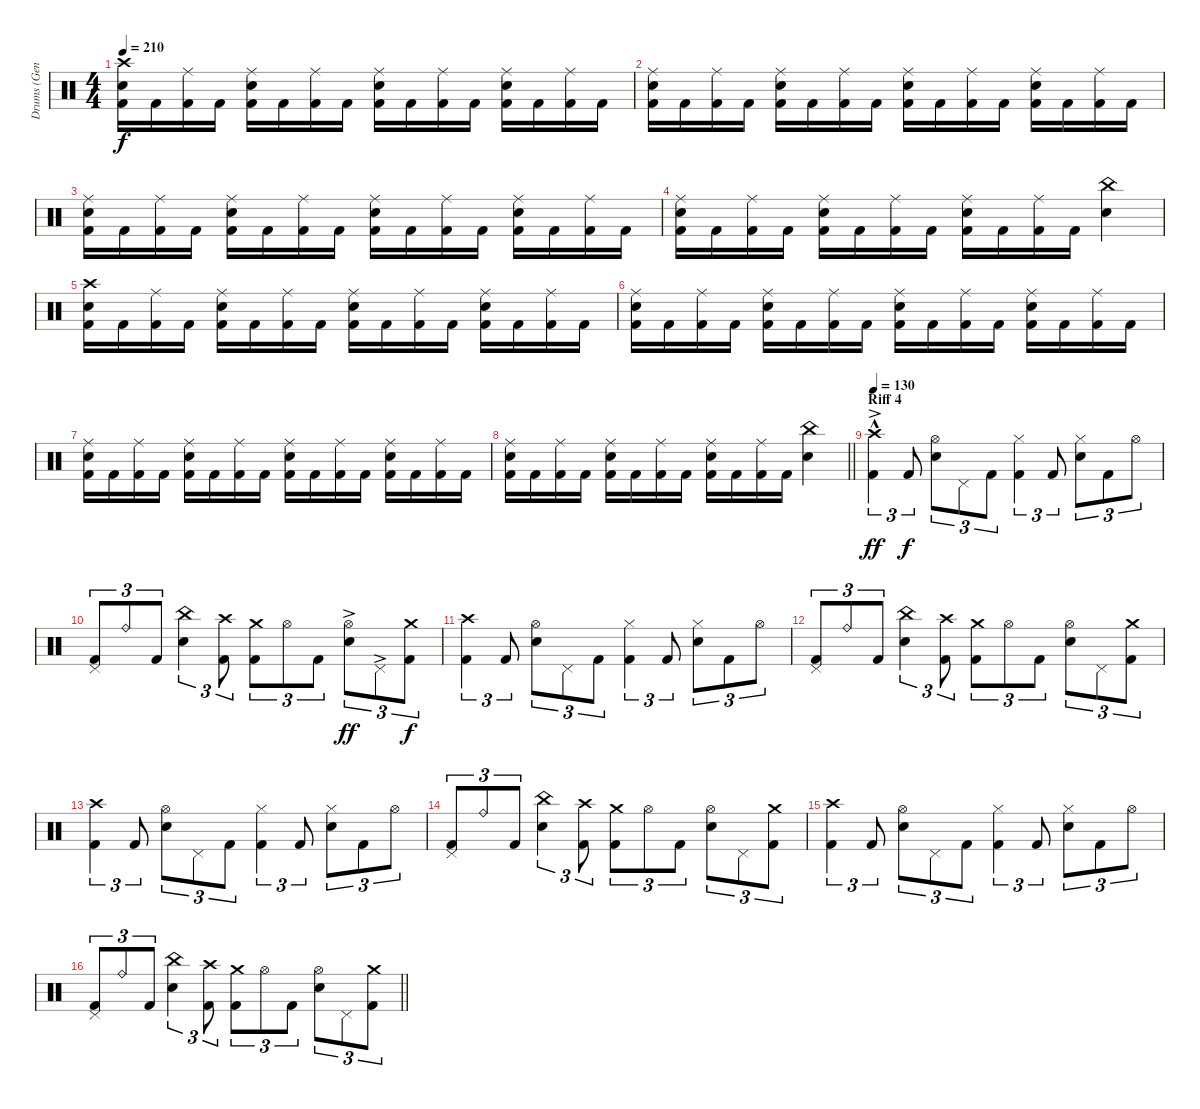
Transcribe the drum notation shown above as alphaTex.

\track ("Drums (Gene Hoglan)" "Drums (Gen") {instrument percussion}
\staff {score}
\articulation defaults
\ts (4 4)
\tempo 210
\clef neutral
\ks c
("Crash high (hit)" "Snare (hit) 2" "Kick (hit) 2").16{dy f} "Kick (hit) 2".16 ("Ride (middle)" "Kick (hit) 2").16 "Kick (hit) 2".16 ("Ride (middle)" "Snare (hit) 2" "Kick (hit) 2").16 "Kick (hit) 2".16 ("Ride (middle)" "Kick (hit) 2").16 "Kick (hit) 2".16 ("Ride (middle)" "Snare (hit) 2" "Kick (hit) 2").16 "Kick (hit) 2".16 ("Ride (middle)" "Kick (hit) 2").16 "Kick (hit) 2".16 ("Ride (middle)" "Snare (hit) 2" "Kick (hit) 2").16 "Kick (hit) 2".16 ("Ride (middle)" "Kick (hit) 2").16 "Kick (hit) 2".16 |
("Ride (middle)" "Snare (hit) 2" "Kick (hit) 2").16 "Kick (hit) 2".16 ("Ride (middle)" "Kick (hit) 2").16 "Kick (hit) 2".16 ("Ride (middle)" "Snare (hit) 2" "Kick (hit) 2").16 "Kick (hit) 2".16 ("Ride (middle)" "Kick (hit) 2").16 "Kick (hit) 2".16 ("Ride (middle)" "Snare (hit) 2" "Kick (hit) 2").16 "Kick (hit) 2".16 ("Ride (middle)" "Kick (hit) 2").16 "Kick (hit) 2".16 ("Ride (middle)" "Snare (hit) 2" "Kick (hit) 2").16 "Kick (hit) 2".16 ("Ride (middle)" "Kick (hit) 2").16 "Kick (hit) 2".16 |
("Ride (middle)" "Snare (hit) 2" "Kick (hit) 2").16 "Kick (hit) 2".16 ("Ride (middle)" "Kick (hit) 2").16 "Kick (hit) 2".16 ("Ride (middle)" "Snare (hit) 2" "Kick (hit) 2").16 "Kick (hit) 2".16 ("Ride (middle)" "Kick (hit) 2").16 "Kick (hit) 2".16 ("Ride (middle)" "Snare (hit) 2" "Kick (hit) 2").16 "Kick (hit) 2".16 ("Ride (middle)" "Kick (hit) 2").16 "Kick (hit) 2".16 ("Ride (middle)" "Snare (hit) 2" "Kick (hit) 2").16 "Kick (hit) 2".16 ("Ride (middle)" "Kick (hit) 2").16 "Kick (hit) 2".16 |
("Ride (middle)" "Snare (hit) 2" "Kick (hit) 2").16 "Kick (hit) 2".16 ("Ride (middle)" "Kick (hit) 2").16 "Kick (hit) 2".16 ("Ride (middle)" "Snare (hit) 2" "Kick (hit) 2").16 "Kick (hit) 2".16 ("Ride (middle)" "Kick (hit) 2").16 "Kick (hit) 2".16 ("Ride (middle)" "Snare (hit) 2" "Kick (hit) 2").16 "Kick (hit) 2".16 ("Ride (middle)" "Kick (hit) 2").16 "Kick (hit) 2".16 ("China (hit)" "Snare (hit) 2").4 |
("Crash high (hit)" "Snare (hit) 2" "Kick (hit) 2").16 "Kick (hit) 2".16 ("Ride (middle)" "Kick (hit) 2").16 "Kick (hit) 2".16 ("Ride (middle)" "Snare (hit) 2" "Kick (hit) 2").16 "Kick (hit) 2".16 ("Ride (middle)" "Kick (hit) 2").16 "Kick (hit) 2".16 ("Ride (middle)" "Snare (hit) 2" "Kick (hit) 2").16 "Kick (hit) 2".16 ("Ride (middle)" "Kick (hit) 2").16 "Kick (hit) 2".16 ("Ride (middle)" "Snare (hit) 2" "Kick (hit) 2").16 "Kick (hit) 2".16 ("Ride (middle)" "Kick (hit) 2").16 "Kick (hit) 2".16 |
("Ride (middle)" "Snare (hit) 2" "Kick (hit) 2").16 "Kick (hit) 2".16 ("Ride (middle)" "Kick (hit) 2").16 "Kick (hit) 2".16 ("Ride (middle)" "Snare (hit) 2" "Kick (hit) 2").16 "Kick (hit) 2".16 ("Ride (middle)" "Kick (hit) 2").16 "Kick (hit) 2".16 ("Ride (middle)" "Snare (hit) 2" "Kick (hit) 2").16 "Kick (hit) 2".16 ("Ride (middle)" "Kick (hit) 2").16 "Kick (hit) 2".16 ("Ride (middle)" "Snare (hit) 2" "Kick (hit) 2").16 "Kick (hit) 2".16 ("Ride (middle)" "Kick (hit) 2").16 "Kick (hit) 2".16 |
("Ride (middle)" "Snare (hit) 2" "Kick (hit) 2").16 "Kick (hit) 2".16 ("Ride (middle)" "Kick (hit) 2").16 "Kick (hit) 2".16 ("Ride (middle)" "Snare (hit) 2" "Kick (hit) 2").16 "Kick (hit) 2".16 ("Ride (middle)" "Kick (hit) 2").16 "Kick (hit) 2".16 ("Ride (middle)" "Snare (hit) 2" "Kick (hit) 2").16 "Kick (hit) 2".16 ("Ride (middle)" "Kick (hit) 2").16 "Kick (hit) 2".16 ("Ride (middle)" "Snare (hit) 2" "Kick (hit) 2").16 "Kick (hit) 2".16 ("Ride (middle)" "Kick (hit) 2").16 "Kick (hit) 2".16 |
\barLineRight lightlight
("Ride (middle)" "Snare (hit) 2" "Kick (hit) 2").16 "Kick (hit) 2".16 ("Ride (middle)" "Kick (hit) 2").16 "Kick (hit) 2".16 ("Ride (middle)" "Snare (hit) 2" "Kick (hit) 2").16 "Kick (hit) 2".16 ("Ride (middle)" "Kick (hit) 2").16 "Kick (hit) 2".16 ("Ride (middle)" "Snare (hit) 2" "Kick (hit) 2").16 "Kick (hit) 2".16 ("Ride (middle)" "Kick (hit) 2").16 "Kick (hit) 2".16 ("China (hit)" "Snare (hit) 2").4 |
\section ("" "Riff 4")
\tempo 130
("Crash high (hit)"{hac} "Kick (hit) 2"{ac}).4{tu (3 2) dy ff} "Kick (hit) 2".8{tu (3 2) dy f} ("Hi-Hat (open)" "Snare (hit) 2").8{tu (3 2)} "Pedal Hi-Hat (hit)".8{tu (3 2)} "Kick (hit) 2".8{tu (3 2)} ("Hi-Hat (closed)" "Kick (hit) 2").4{tu (3 2)} "Kick (hit) 2".8{tu (3 2)} ("Hi-Hat (closed)" "Snare (hit) 2").8{tu (3 2)} "Kick (hit) 2".8{tu (3 2)} "Hi-Hat (open)".8{tu (3 2)} |
("Pedal Hi-Hat (hit)" "Kick (hit) 2").8{tu (3 2)} "Ride (bell)".8{tu (3 2)} "Kick (hit) 2".8{tu (3 2)} ("China (hit)" "Snare (hit) 2").4{tu (3 2)} ("Crash high (hit)" "Kick (hit) 2").8{tu (3 2)} ("Crash medium (hit)" "Kick (hit) 2").8{tu (3 2)} "Hi-Hat (open)".8{tu (3 2)} "Kick (hit) 2".8{tu (3 2)} ("Hi-Hat (open)"{ac} "Snare (hit) 2").8{tu (3 2) dy ff} "Pedal Hi-Hat (hit)"{ac}.8{tu (3 2)} ("Crash medium (hit)" "Kick (hit) 2").8{tu (3 2) dy f} |
("Crash high (hit)" "Kick (hit) 2").4{tu (3 2)} "Kick (hit) 2".8{tu (3 2)} ("Hi-Hat (open)" "Snare (hit) 2").8{tu (3 2)} "Pedal Hi-Hat (hit)".8{tu (3 2)} "Kick (hit) 2".8{tu (3 2)} ("Hi-Hat (closed)" "Kick (hit) 2").4{tu (3 2)} "Kick (hit) 2".8{tu (3 2)} ("Hi-Hat (closed)" "Snare (hit) 2").8{tu (3 2)} "Kick (hit) 2".8{tu (3 2)} "Hi-Hat (open)".8{tu (3 2)} |
("Pedal Hi-Hat (hit)" "Kick (hit) 2").8{tu (3 2)} "Ride (bell)".8{tu (3 2)} "Kick (hit) 2".8{tu (3 2)} ("China (hit)" "Snare (hit) 2").4{tu (3 2)} ("Crash high (hit)" "Kick (hit) 2").8{tu (3 2)} ("Crash medium (hit)" "Kick (hit) 2").8{tu (3 2)} "Hi-Hat (open)".8{tu (3 2)} "Kick (hit) 2".8{tu (3 2)} ("Hi-Hat (open)" "Snare (hit) 2").8{tu (3 2)} "Pedal Hi-Hat (hit)".8{tu (3 2)} ("Crash medium (hit)" "Kick (hit) 2").8{tu (3 2)} |
("Crash high (hit)" "Kick (hit) 2").4{tu (3 2)} "Kick (hit) 2".8{tu (3 2)} ("Hi-Hat (open)" "Snare (hit) 2").8{tu (3 2)} "Pedal Hi-Hat (hit)".8{tu (3 2)} "Kick (hit) 2".8{tu (3 2)} ("Hi-Hat (closed)" "Kick (hit) 2").4{tu (3 2)} "Kick (hit) 2".8{tu (3 2)} ("Hi-Hat (closed)" "Snare (hit) 2").8{tu (3 2)} "Kick (hit) 2".8{tu (3 2)} "Hi-Hat (open)".8{tu (3 2)} |
("Pedal Hi-Hat (hit)" "Kick (hit) 2").8{tu (3 2)} "Ride (bell)".8{tu (3 2)} "Kick (hit) 2".8{tu (3 2)} ("China (hit)" "Snare (hit) 2").4{tu (3 2)} ("Crash high (hit)" "Kick (hit) 2").8{tu (3 2)} ("Crash medium (hit)" "Kick (hit) 2").8{tu (3 2)} "Hi-Hat (open)".8{tu (3 2)} "Kick (hit) 2".8{tu (3 2)} ("Hi-Hat (open)" "Snare (hit) 2").8{tu (3 2)} "Pedal Hi-Hat (hit)".8{tu (3 2)} ("Crash medium (hit)" "Kick (hit) 2").8{tu (3 2)} |
("Crash high (hit)" "Kick (hit) 2").4{tu (3 2)} "Kick (hit) 2".8{tu (3 2)} ("Hi-Hat (open)" "Snare (hit) 2").8{tu (3 2)} "Pedal Hi-Hat (hit)".8{tu (3 2)} "Kick (hit) 2".8{tu (3 2)} ("Hi-Hat (closed)" "Kick (hit) 2").4{tu (3 2)} "Kick (hit) 2".8{tu (3 2)} ("Hi-Hat (closed)" "Snare (hit) 2").8{tu (3 2)} "Kick (hit) 2".8{tu (3 2)} "Hi-Hat (open)".8{tu (3 2)} |
\barLineRight lightlight
("Pedal Hi-Hat (hit)" "Kick (hit) 2").8{tu (3 2)} "Ride (bell)".8{tu (3 2)} "Kick (hit) 2".8{tu (3 2)} ("China (hit)" "Snare (hit) 2").4{tu (3 2)} ("Crash high (hit)" "Kick (hit) 2").8{tu (3 2)} ("Crash medium (hit)" "Kick (hit) 2").8{tu (3 2)} "Hi-Hat (open)".8{tu (3 2)} "Kick (hit) 2".8{tu (3 2)} ("Hi-Hat (open)" "Snare (hit) 2").8{tu (3 2)} "Pedal Hi-Hat (hit)".8{tu (3 2)} ("Crash medium (hit)" "Kick (hit) 2").8{tu (3 2)}
